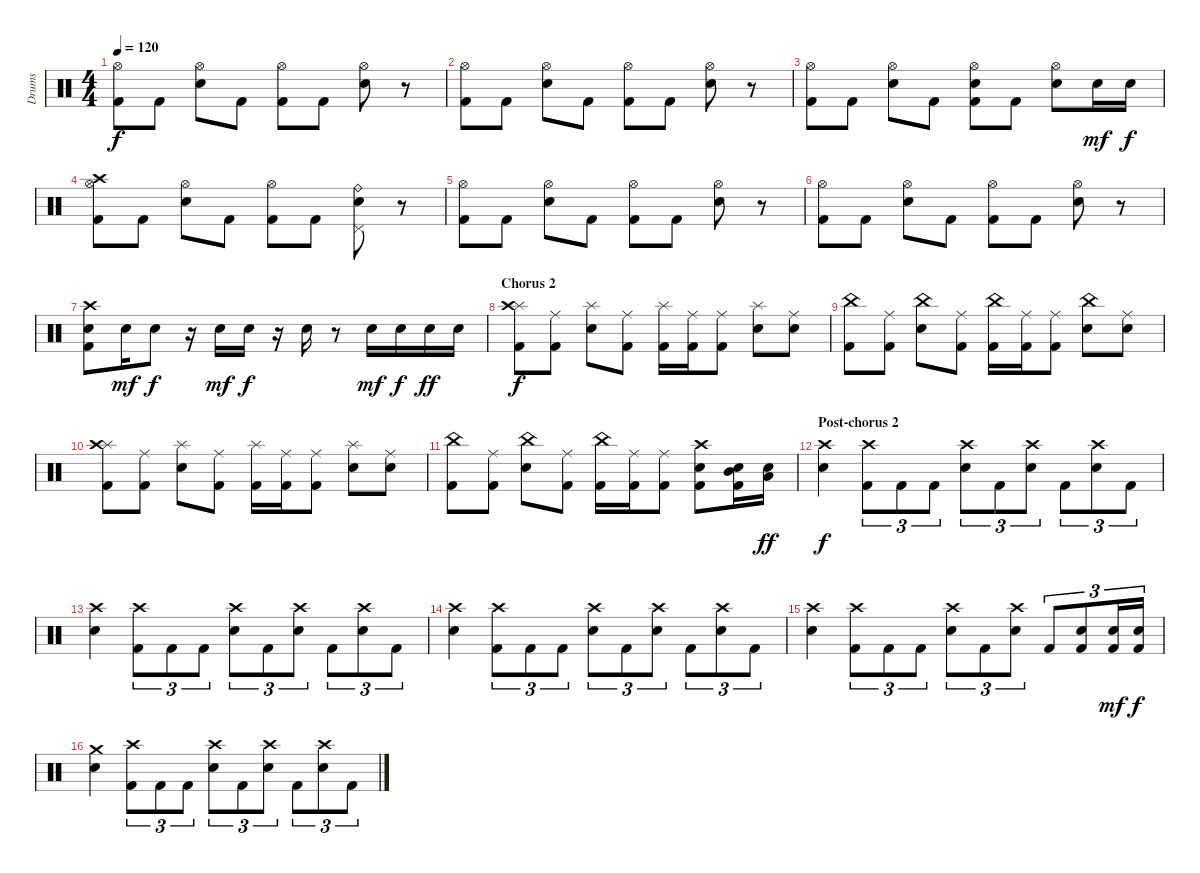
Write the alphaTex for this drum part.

\track ("Drums" "Drums") {instrument percussion}
\staff {score}
\articulation defaults
\ts (4 4)
\tempo 120
\clef neutral
\ks c
("Hi-Hat (open)" "Kick (hit) 2").8{dy f} "Kick (hit) 2".8 ("Hi-Hat (open)" "Electric Snare (hit)").8 "Kick (hit) 2".8 ("Hi-Hat (open)" "Kick (hit) 2").8 "Kick (hit) 2".8 ("Hi-Hat (open)" "Electric Snare (hit)").8 r.8 |
("Hi-Hat (open)" "Kick (hit) 2").8 "Kick (hit) 2".8 ("Hi-Hat (open)" "Electric Snare (hit)").8 "Kick (hit) 2".8 ("Hi-Hat (open)" "Kick (hit) 2").8 "Kick (hit) 2".8 ("Hi-Hat (open)" "Electric Snare (hit)").8 r.8 |
("Hi-Hat (open)" "Kick (hit) 2").8 "Kick (hit) 2".8 ("Hi-Hat (open)" "Electric Snare (hit)").8 "Kick (hit) 2".8 ("Hi-Hat (open)" "Electric Snare (hit)" "Kick (hit) 2").8 "Kick (hit) 2".8 ("Hi-Hat (open)" "Electric Snare (hit)").8 "Electric Snare (hit)".16{dy mf} "Electric Snare (hit)".16{dy f} |
("Hi-Hat (open)" "Crash high (hit)" "Kick (hit) 2").8 "Kick (hit) 2".8 ("Hi-Hat (open)" "Electric Snare (hit)").8 "Kick (hit) 2".8 ("Hi-Hat (open)" "Kick (hit) 2").8 "Kick (hit) 2".8 ("Pedal Hi-Hat (hit)" "Ride (bell)" "Electric Snare (hit)").8 r.8 |
("Hi-Hat (open)" "Kick (hit) 2").8 "Kick (hit) 2".8 ("Hi-Hat (open)" "Electric Snare (hit)").8 "Kick (hit) 2".8 ("Hi-Hat (open)" "Kick (hit) 2").8 "Kick (hit) 2".8 ("Hi-Hat (open)" "Electric Snare (hit)").8 r.8 |
("Hi-Hat (open)" "Kick (hit) 2").8 "Kick (hit) 2".8 ("Hi-Hat (open)" "Electric Snare (hit)").8 "Kick (hit) 2".8 ("Hi-Hat (open)" "Kick (hit) 2").8 "Kick (hit) 2".8 ("Hi-Hat (open)" "Electric Snare (hit)").8 r.8 |
("Crash high (hit)" "Electric Snare (hit)" "Kick (hit) 2").8 "Electric Snare (hit)".16{dy mf} "Electric Snare (hit)".8{dy f} r.16 "Electric Snare (hit)".16{dy mf} "Electric Snare (hit)".16{dy f} r.16 "Electric Snare (hit)".16 r.8 "Electric Snare (hit)".16{dy mf} "Electric Snare (hit)".16{dy f} "Electric Snare (hit)".16{dy ff} "Electric Snare (hit)".16 |
\section ("" "Chorus 2")
("Splash (hit)" "Crash high (hit)" "Kick (hit) 2").8{dy f} ("Ride (middle)" "Kick (hit) 2").8 ("Splash (hit)" "Electric Snare (hit)").8 ("Ride (middle)" "Kick (hit) 2").8 ("Splash (hit)" "Kick (hit) 2").16 ("Ride (middle)" "Kick (hit) 2").16 ("Ride (middle)" "Kick (hit) 2").8 ("Splash (hit)" "Electric Snare (hit)").8 ("Ride (middle)" "Electric Snare (hit)").8 |
("China (hit)" "Kick (hit) 2").8 ("Ride (middle)" "Kick (hit) 2").8 ("China (hit)" "Electric Snare (hit)").8 ("Ride (middle)" "Kick (hit) 2").8 ("China (hit)" "Kick (hit) 2").16 ("Ride (middle)" "Kick (hit) 2").16 ("Ride (middle)" "Kick (hit) 2").8 ("China (hit)" "Electric Snare (hit)").8 ("Ride (middle)" "Electric Snare (hit)").8 |
("Splash (hit)" "Crash high (hit)" "Kick (hit) 2").8 ("Ride (middle)" "Kick (hit) 2").8 ("Splash (hit)" "Electric Snare (hit)").8 ("Ride (middle)" "Kick (hit) 2").8 ("Splash (hit)" "Kick (hit) 2").16 ("Ride (middle)" "Kick (hit) 2").16 ("Ride (middle)" "Kick (hit) 2").8 ("Splash (hit)" "Electric Snare (hit)").8 ("Ride (middle)" "Electric Snare (hit)").8 |
("China (hit)" "Kick (hit) 2").8 ("Ride (middle)" "Kick (hit) 2").8 ("China (hit)" "Electric Snare (hit)").8 ("Ride (middle)" "Kick (hit) 2").8 ("China (hit)" "Kick (hit) 2").16 ("Ride (middle)" "Kick (hit) 2").16 ("Ride (middle)" "Kick (hit) 2").8 ("Crash high (hit)" "Electric Snare (hit)" "Kick (hit) 2").8 ("Mid Tom (hit)" "Electric Snare (hit)" "Kick (hit) 2").16 ("Low Tom (hit)" "Electric Snare (hit)").16{dy ff} |
\section ("" "Post-chorus 2")
("Crash high (hit)" "Electric Snare (hit)").4{dy f} ("Crash high (hit)" "Kick (hit) 2").8{tu (3 2)} "Kick (hit) 2".8{tu (3 2)} "Kick (hit) 2".8{tu (3 2)} ("Crash high (hit)" "Electric Snare (hit)").8{tu (3 2)} "Kick (hit) 2".8{tu (3 2)} ("Crash high (hit)" "Electric Snare (hit)").8{tu (3 2)} "Kick (hit) 2".8{tu (3 2)} ("Crash high (hit)" "Electric Snare (hit)").8{tu (3 2)} "Kick (hit) 2".8{tu (3 2)} |
("Crash high (hit)" "Electric Snare (hit)").4 ("Crash high (hit)" "Kick (hit) 2").8{tu (3 2)} "Kick (hit) 2".8{tu (3 2)} "Kick (hit) 2".8{tu (3 2)} ("Crash high (hit)" "Electric Snare (hit)").8{tu (3 2)} "Kick (hit) 2".8{tu (3 2)} ("Crash high (hit)" "Electric Snare (hit)").8{tu (3 2)} "Kick (hit) 2".8{tu (3 2)} ("Crash high (hit)" "Electric Snare (hit)").8{tu (3 2)} "Kick (hit) 2".8{tu (3 2)} |
("Crash high (hit)" "Electric Snare (hit)").4 ("Crash high (hit)" "Kick (hit) 2").8{tu (3 2)} "Kick (hit) 2".8{tu (3 2)} "Kick (hit) 2".8{tu (3 2)} ("Crash high (hit)" "Electric Snare (hit)").8{tu (3 2)} "Kick (hit) 2".8{tu (3 2)} ("Crash high (hit)" "Electric Snare (hit)").8{tu (3 2)} "Kick (hit) 2".8{tu (3 2)} ("Crash high (hit)" "Electric Snare (hit)").8{tu (3 2)} "Kick (hit) 2".8{tu (3 2)} |
("Crash high (hit)" "Electric Snare (hit)").4 ("Crash high (hit)" "Kick (hit) 2").8{tu (3 2)} "Kick (hit) 2".8{tu (3 2)} "Kick (hit) 2".8{tu (3 2)} ("Crash high (hit)" "Electric Snare (hit)").8{tu (3 2)} "Kick (hit) 2".8{tu (3 2)} ("Crash high (hit)" "Electric Snare (hit)").8{tu (3 2)} "Kick (hit) 2".8{tu (3 2)} ("Electric Snare (hit)" "Kick (hit) 2").8{tu (3 2)} ("Electric Snare (hit)" "Kick (hit) 2").16{tu (3 2) dy mf} ("Electric Snare (hit)" "Kick (hit) 2").16{tu (3 2) dy f} |
("Crash medium (hit)" "Electric Snare (hit)").4 ("Crash high (hit)" "Kick (hit) 2").8{tu (3 2)} "Kick (hit) 2".8{tu (3 2)} "Kick (hit) 2".8{tu (3 2)} ("Crash high (hit)" "Electric Snare (hit)").8{tu (3 2)} "Kick (hit) 2".8{tu (3 2)} ("Crash high (hit)" "Electric Snare (hit)").8{tu (3 2)} "Kick (hit) 2".8{tu (3 2)} ("Crash high (hit)" "Electric Snare (hit)").8{tu (3 2)} "Kick (hit) 2".8{tu (3 2)}
